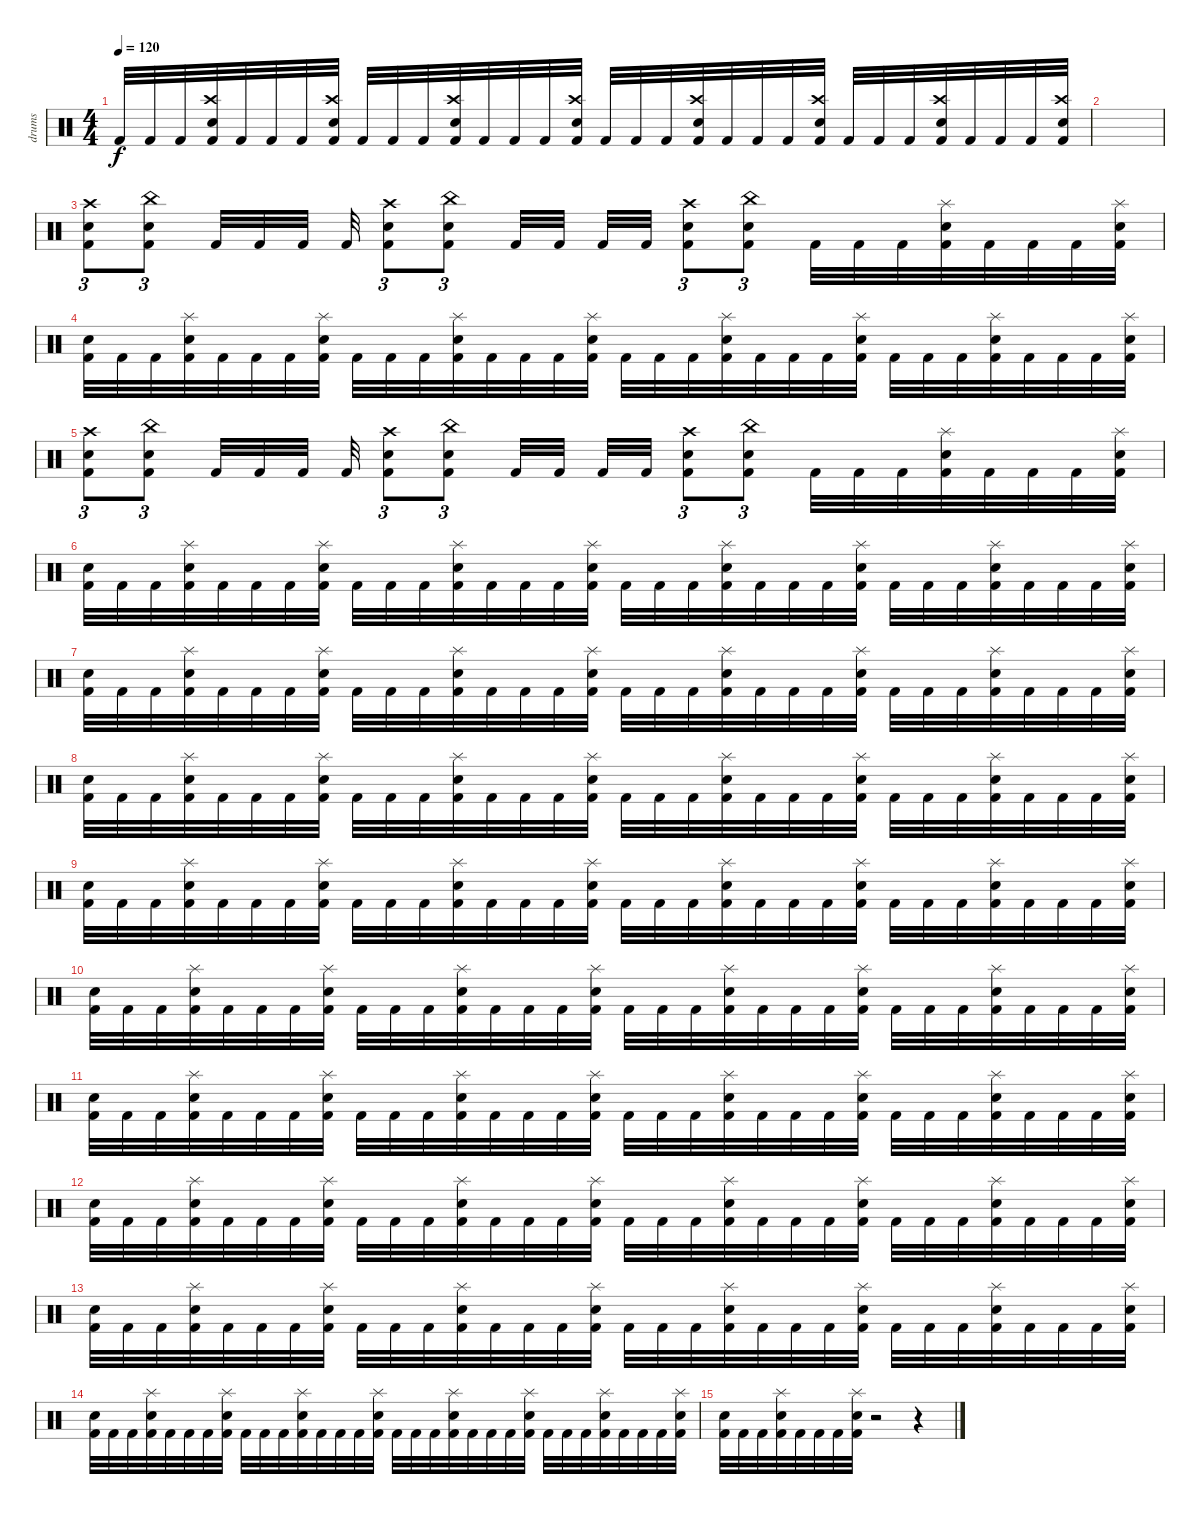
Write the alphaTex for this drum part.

\track ("drums" "drums") {instrument percussion}
\staff {score}
\articulation defaults
\ts (4 4)
\tempo 120
\clef neutral
\ks c "Kick (hit) 2".32{dy f} "Kick (hit) 2".32 "Kick (hit) 2".32
("Crash high (hit)" "Electric Snare (hit)" "Kick (hit) 2").32 "Kick (hit) 2".32 "Kick (hit) 2".32 "Kick (hit) 2".32 ("Crash high (hit)" "Electric Snare (hit)" "Kick (hit) 2").32 "Kick (hit) 2".32 "Kick (hit) 2".32 "Kick (hit) 2".32 ("Crash high (hit)" "Electric Snare (hit)" "Kick (hit) 2").32 "Kick (hit) 2".32 "Kick (hit) 2".32 "Kick (hit) 2".32 ("Crash high (hit)" "Electric Snare (hit)" "Kick (hit) 2").32 "Kick (hit) 2".32 "Kick (hit) 2".32 "Kick (hit) 2".32 ("Crash high (hit)" "Electric Snare (hit)" "Kick (hit) 2").32 "Kick (hit) 2".32 "Kick (hit) 2".32 "Kick (hit) 2".32 ("Crash high (hit)" "Electric Snare (hit)" "Kick (hit) 2").32 "Kick (hit) 2".32 "Kick (hit) 2".32 "Kick (hit) 2".32 ("Crash high (hit)" "Electric Snare (hit)" "Kick (hit) 2").32 "Kick (hit) 2".32 "Kick (hit) 2".32 "Kick (hit) 2".32 ("Crash high (hit)" "Electric Snare (hit)" "Kick (hit) 2").32 |
|
("Crash high (hit)" "Electric Snare (hit)" "Kick (hit) 2").8{tu (3 2)} ("China (hit)" "Electric Snare (hit)" "Kick (hit) 2").8{tu (3 2)} "Kick (hit) 2".32 "Kick (hit) 2".32 "Kick (hit) 2".32 "Kick (hit) 2".32 ("Crash high (hit)" "Electric Snare (hit)" "Kick (hit) 2").8{tu (3 2)} ("China (hit)" "Electric Snare (hit)" "Kick (hit) 2").8{tu (3 2)} "Kick (hit) 2".32 "Kick (hit) 2".32 "Kick (hit) 2".32 "Kick (hit) 2".32 ("Crash high (hit)" "Electric Snare (hit)" "Kick (hit) 2").8{tu (3 2)} ("China (hit)" "Electric Snare (hit)" "Kick (hit) 2").8{tu (3 2)} "Kick (hit) 2".32 "Kick (hit) 2".32 "Kick (hit) 2".32 ("Splash (hit)" "Electric Snare (hit)" "Kick (hit) 2").32 "Kick (hit) 2".32 "Kick (hit) 2".32 "Kick (hit) 2".32 ("Splash (hit)" "Electric Snare (hit)" "Kick (hit) 2").32 |
("Electric Snare (hit)" "Kick (hit) 2").32 "Kick (hit) 2".32 "Kick (hit) 2".32 ("Splash (hit)" "Electric Snare (hit)" "Kick (hit) 2").32 "Kick (hit) 2".32 "Kick (hit) 2".32 "Kick (hit) 2".32 ("Splash (hit)" "Electric Snare (hit)" "Kick (hit) 2").32 "Kick (hit) 2".32 "Kick (hit) 2".32 "Kick (hit) 2".32 ("Splash (hit)" "Electric Snare (hit)" "Kick (hit) 2").32 "Kick (hit) 2".32 "Kick (hit) 2".32 "Kick (hit) 2".32 ("Splash (hit)" "Electric Snare (hit)" "Kick (hit) 2").32 "Kick (hit) 2".32 "Kick (hit) 2".32 "Kick (hit) 2".32 ("Splash (hit)" "Electric Snare (hit)" "Kick (hit) 2").32 "Kick (hit) 2".32 "Kick (hit) 2".32 "Kick (hit) 2".32 ("Splash (hit)" "Electric Snare (hit)" "Kick (hit) 2").32 "Kick (hit) 2".32 "Kick (hit) 2".32 "Kick (hit) 2".32 ("Splash (hit)" "Electric Snare (hit)" "Kick (hit) 2").32 "Kick (hit) 2".32 "Kick (hit) 2".32 "Kick (hit) 2".32 ("Splash (hit)" "Electric Snare (hit)" "Kick (hit) 2").32 |
("Crash high (hit)" "Electric Snare (hit)" "Kick (hit) 2").8{tu (3 2)} ("China (hit)" "Electric Snare (hit)" "Kick (hit) 2").8{tu (3 2)} "Kick (hit) 2".32 "Kick (hit) 2".32 "Kick (hit) 2".32 "Kick (hit) 2".32 ("Crash high (hit)" "Electric Snare (hit)" "Kick (hit) 2").8{tu (3 2)} ("China (hit)" "Electric Snare (hit)" "Kick (hit) 2").8{tu (3 2)} "Kick (hit) 2".32 "Kick (hit) 2".32 "Kick (hit) 2".32 "Kick (hit) 2".32 ("Crash high (hit)" "Electric Snare (hit)" "Kick (hit) 2").8{tu (3 2)} ("China (hit)" "Electric Snare (hit)" "Kick (hit) 2").8{tu (3 2)} "Kick (hit) 2".32 "Kick (hit) 2".32 "Kick (hit) 2".32 ("Splash (hit)" "Electric Snare (hit)" "Kick (hit) 2").32 "Kick (hit) 2".32 "Kick (hit) 2".32 "Kick (hit) 2".32 ("Splash (hit)" "Electric Snare (hit)" "Kick (hit) 2").32 |
("Electric Snare (hit)" "Kick (hit) 2").32 "Kick (hit) 2".32 "Kick (hit) 2".32 ("Splash (hit)" "Electric Snare (hit)" "Kick (hit) 2").32 "Kick (hit) 2".32 "Kick (hit) 2".32 "Kick (hit) 2".32 ("Splash (hit)" "Electric Snare (hit)" "Kick (hit) 2").32 "Kick (hit) 2".32 "Kick (hit) 2".32 "Kick (hit) 2".32 ("Splash (hit)" "Electric Snare (hit)" "Kick (hit) 2").32 "Kick (hit) 2".32 "Kick (hit) 2".32 "Kick (hit) 2".32 ("Splash (hit)" "Electric Snare (hit)" "Kick (hit) 2").32 "Kick (hit) 2".32 "Kick (hit) 2".32 "Kick (hit) 2".32 ("Splash (hit)" "Electric Snare (hit)" "Kick (hit) 2").32 "Kick (hit) 2".32 "Kick (hit) 2".32 "Kick (hit) 2".32 ("Splash (hit)" "Electric Snare (hit)" "Kick (hit) 2").32 "Kick (hit) 2".32 "Kick (hit) 2".32 "Kick (hit) 2".32 ("Splash (hit)" "Electric Snare (hit)" "Kick (hit) 2").32 "Kick (hit) 2".32 "Kick (hit) 2".32 "Kick (hit) 2".32 ("Splash (hit)" "Electric Snare (hit)" "Kick (hit) 2").32 |
("Electric Snare (hit)" "Kick (hit) 2").32 "Kick (hit) 2".32 "Kick (hit) 2".32 ("Splash (hit)" "Electric Snare (hit)" "Kick (hit) 2").32 "Kick (hit) 2".32 "Kick (hit) 2".32 "Kick (hit) 2".32 ("Splash (hit)" "Electric Snare (hit)" "Kick (hit) 2").32 "Kick (hit) 2".32 "Kick (hit) 2".32 "Kick (hit) 2".32 ("Splash (hit)" "Electric Snare (hit)" "Kick (hit) 2").32 "Kick (hit) 2".32 "Kick (hit) 2".32 "Kick (hit) 2".32 ("Splash (hit)" "Electric Snare (hit)" "Kick (hit) 2").32 "Kick (hit) 2".32 "Kick (hit) 2".32 "Kick (hit) 2".32 ("Splash (hit)" "Electric Snare (hit)" "Kick (hit) 2").32 "Kick (hit) 2".32 "Kick (hit) 2".32 "Kick (hit) 2".32 ("Splash (hit)" "Electric Snare (hit)" "Kick (hit) 2").32 "Kick (hit) 2".32 "Kick (hit) 2".32 "Kick (hit) 2".32 ("Splash (hit)" "Electric Snare (hit)" "Kick (hit) 2").32 "Kick (hit) 2".32 "Kick (hit) 2".32 "Kick (hit) 2".32 ("Splash (hit)" "Electric Snare (hit)" "Kick (hit) 2").32 |
("Electric Snare (hit)" "Kick (hit) 2").32 "Kick (hit) 2".32 "Kick (hit) 2".32 ("Splash (hit)" "Electric Snare (hit)" "Kick (hit) 2").32 "Kick (hit) 2".32 "Kick (hit) 2".32 "Kick (hit) 2".32 ("Splash (hit)" "Electric Snare (hit)" "Kick (hit) 2").32 "Kick (hit) 2".32 "Kick (hit) 2".32 "Kick (hit) 2".32 ("Splash (hit)" "Electric Snare (hit)" "Kick (hit) 2").32 "Kick (hit) 2".32 "Kick (hit) 2".32 "Kick (hit) 2".32 ("Splash (hit)" "Electric Snare (hit)" "Kick (hit) 2").32 "Kick (hit) 2".32 "Kick (hit) 2".32 "Kick (hit) 2".32 ("Splash (hit)" "Electric Snare (hit)" "Kick (hit) 2").32 "Kick (hit) 2".32 "Kick (hit) 2".32 "Kick (hit) 2".32 ("Splash (hit)" "Electric Snare (hit)" "Kick (hit) 2").32 "Kick (hit) 2".32 "Kick (hit) 2".32 "Kick (hit) 2".32 ("Splash (hit)" "Electric Snare (hit)" "Kick (hit) 2").32 "Kick (hit) 2".32 "Kick (hit) 2".32 "Kick (hit) 2".32 ("Splash (hit)" "Electric Snare (hit)" "Kick (hit) 2").32 |
("Electric Snare (hit)" "Kick (hit) 2").32 "Kick (hit) 2".32 "Kick (hit) 2".32 ("Splash (hit)" "Electric Snare (hit)" "Kick (hit) 2").32 "Kick (hit) 2".32 "Kick (hit) 2".32 "Kick (hit) 2".32 ("Splash (hit)" "Electric Snare (hit)" "Kick (hit) 2").32 "Kick (hit) 2".32 "Kick (hit) 2".32 "Kick (hit) 2".32 ("Splash (hit)" "Electric Snare (hit)" "Kick (hit) 2").32 "Kick (hit) 2".32 "Kick (hit) 2".32 "Kick (hit) 2".32 ("Splash (hit)" "Electric Snare (hit)" "Kick (hit) 2").32 "Kick (hit) 2".32 "Kick (hit) 2".32 "Kick (hit) 2".32 ("Splash (hit)" "Electric Snare (hit)" "Kick (hit) 2").32 "Kick (hit) 2".32 "Kick (hit) 2".32 "Kick (hit) 2".32 ("Splash (hit)" "Electric Snare (hit)" "Kick (hit) 2").32 "Kick (hit) 2".32 "Kick (hit) 2".32 "Kick (hit) 2".32 ("Splash (hit)" "Electric Snare (hit)" "Kick (hit) 2").32 "Kick (hit) 2".32 "Kick (hit) 2".32 "Kick (hit) 2".32 ("Splash (hit)" "Electric Snare (hit)" "Kick (hit) 2").32 |
("Electric Snare (hit)" "Kick (hit) 2").32 "Kick (hit) 2".32 "Kick (hit) 2".32 ("Splash (hit)" "Electric Snare (hit)" "Kick (hit) 2").32 "Kick (hit) 2".32 "Kick (hit) 2".32 "Kick (hit) 2".32 ("Splash (hit)" "Electric Snare (hit)" "Kick (hit) 2").32 "Kick (hit) 2".32 "Kick (hit) 2".32 "Kick (hit) 2".32 ("Splash (hit)" "Electric Snare (hit)" "Kick (hit) 2").32 "Kick (hit) 2".32 "Kick (hit) 2".32 "Kick (hit) 2".32 ("Splash (hit)" "Electric Snare (hit)" "Kick (hit) 2").32 "Kick (hit) 2".32 "Kick (hit) 2".32 "Kick (hit) 2".32 ("Splash (hit)" "Electric Snare (hit)" "Kick (hit) 2").32 "Kick (hit) 2".32 "Kick (hit) 2".32 "Kick (hit) 2".32 ("Splash (hit)" "Electric Snare (hit)" "Kick (hit) 2").32 "Kick (hit) 2".32 "Kick (hit) 2".32 "Kick (hit) 2".32 ("Splash (hit)" "Electric Snare (hit)" "Kick (hit) 2").32 "Kick (hit) 2".32 "Kick (hit) 2".32 "Kick (hit) 2".32 ("Splash (hit)" "Electric Snare (hit)" "Kick (hit) 2").32 |
("Electric Snare (hit)" "Kick (hit) 2").32 "Kick (hit) 2".32 "Kick (hit) 2".32 ("Splash (hit)" "Electric Snare (hit)" "Kick (hit) 2").32 "Kick (hit) 2".32 "Kick (hit) 2".32 "Kick (hit) 2".32 ("Splash (hit)" "Electric Snare (hit)" "Kick (hit) 2").32 "Kick (hit) 2".32 "Kick (hit) 2".32 "Kick (hit) 2".32 ("Splash (hit)" "Electric Snare (hit)" "Kick (hit) 2").32 "Kick (hit) 2".32 "Kick (hit) 2".32 "Kick (hit) 2".32 ("Splash (hit)" "Electric Snare (hit)" "Kick (hit) 2").32 "Kick (hit) 2".32 "Kick (hit) 2".32 "Kick (hit) 2".32 ("Splash (hit)" "Electric Snare (hit)" "Kick (hit) 2").32 "Kick (hit) 2".32 "Kick (hit) 2".32 "Kick (hit) 2".32 ("Splash (hit)" "Electric Snare (hit)" "Kick (hit) 2").32 "Kick (hit) 2".32 "Kick (hit) 2".32 "Kick (hit) 2".32 ("Splash (hit)" "Electric Snare (hit)" "Kick (hit) 2").32 "Kick (hit) 2".32 "Kick (hit) 2".32 "Kick (hit) 2".32 ("Splash (hit)" "Electric Snare (hit)" "Kick (hit) 2").32 |
("Electric Snare (hit)" "Kick (hit) 2").32 "Kick (hit) 2".32 "Kick (hit) 2".32 ("Splash (hit)" "Electric Snare (hit)" "Kick (hit) 2").32 "Kick (hit) 2".32 "Kick (hit) 2".32 "Kick (hit) 2".32 ("Splash (hit)" "Electric Snare (hit)" "Kick (hit) 2").32 "Kick (hit) 2".32 "Kick (hit) 2".32 "Kick (hit) 2".32 ("Splash (hit)" "Electric Snare (hit)" "Kick (hit) 2").32 "Kick (hit) 2".32 "Kick (hit) 2".32 "Kick (hit) 2".32 ("Splash (hit)" "Electric Snare (hit)" "Kick (hit) 2").32 "Kick (hit) 2".32 "Kick (hit) 2".32 "Kick (hit) 2".32 ("Splash (hit)" "Electric Snare (hit)" "Kick (hit) 2").32 "Kick (hit) 2".32 "Kick (hit) 2".32 "Kick (hit) 2".32 ("Splash (hit)" "Electric Snare (hit)" "Kick (hit) 2").32 "Kick (hit) 2".32 "Kick (hit) 2".32 "Kick (hit) 2".32 ("Splash (hit)" "Electric Snare (hit)" "Kick (hit) 2").32 "Kick (hit) 2".32 "Kick (hit) 2".32 "Kick (hit) 2".32 ("Splash (hit)" "Electric Snare (hit)" "Kick (hit) 2").32 |
("Electric Snare (hit)" "Kick (hit) 2").32 "Kick (hit) 2".32 "Kick (hit) 2".32 ("Splash (hit)" "Electric Snare (hit)" "Kick (hit) 2").32 "Kick (hit) 2".32 "Kick (hit) 2".32 "Kick (hit) 2".32 ("Splash (hit)" "Electric Snare (hit)" "Kick (hit) 2").32 "Kick (hit) 2".32 "Kick (hit) 2".32 "Kick (hit) 2".32 ("Splash (hit)" "Electric Snare (hit)" "Kick (hit) 2").32 "Kick (hit) 2".32 "Kick (hit) 2".32 "Kick (hit) 2".32 ("Splash (hit)" "Electric Snare (hit)" "Kick (hit) 2").32 "Kick (hit) 2".32 "Kick (hit) 2".32 "Kick (hit) 2".32 ("Splash (hit)" "Electric Snare (hit)" "Kick (hit) 2").32 "Kick (hit) 2".32 "Kick (hit) 2".32 "Kick (hit) 2".32 ("Splash (hit)" "Electric Snare (hit)" "Kick (hit) 2").32 "Kick (hit) 2".32 "Kick (hit) 2".32 "Kick (hit) 2".32 ("Splash (hit)" "Electric Snare (hit)" "Kick (hit) 2").32 "Kick (hit) 2".32 "Kick (hit) 2".32 "Kick (hit) 2".32 ("Splash (hit)" "Electric Snare (hit)" "Kick (hit) 2").32 |
("Electric Snare (hit)" "Kick (hit) 2").32 "Kick (hit) 2".32 "Kick (hit) 2".32 ("Splash (hit)" "Electric Snare (hit)" "Kick (hit) 2").32 "Kick (hit) 2".32 "Kick (hit) 2".32 "Kick (hit) 2".32 ("Splash (hit)" "Electric Snare (hit)" "Kick (hit) 2").32 "Kick (hit) 2".32 "Kick (hit) 2".32 "Kick (hit) 2".32 ("Splash (hit)" "Electric Snare (hit)" "Kick (hit) 2").32 "Kick (hit) 2".32 "Kick (hit) 2".32 "Kick (hit) 2".32 ("Splash (hit)" "Electric Snare (hit)" "Kick (hit) 2").32 "Kick (hit) 2".32 "Kick (hit) 2".32 "Kick (hit) 2".32 ("Splash (hit)" "Electric Snare (hit)" "Kick (hit) 2").32 "Kick (hit) 2".32 "Kick (hit) 2".32 "Kick (hit) 2".32 ("Splash (hit)" "Electric Snare (hit)" "Kick (hit) 2").32 "Kick (hit) 2".32 "Kick (hit) 2".32 "Kick (hit) 2".32 ("Splash (hit)" "Electric Snare (hit)" "Kick (hit) 2").32 "Kick (hit) 2".32 "Kick (hit) 2".32 "Kick (hit) 2".32 ("Splash (hit)" "Electric Snare (hit)" "Kick (hit) 2").32 |
("Electric Snare (hit)" "Kick (hit) 2").32 "Kick (hit) 2".32 "Kick (hit) 2".32 ("Splash (hit)" "Electric Snare (hit)" "Kick (hit) 2").32 "Kick (hit) 2".32 "Kick (hit) 2".32 "Kick (hit) 2".32 ("Splash (hit)" "Electric Snare (hit)" "Kick (hit) 2").32 r.2 r.4
